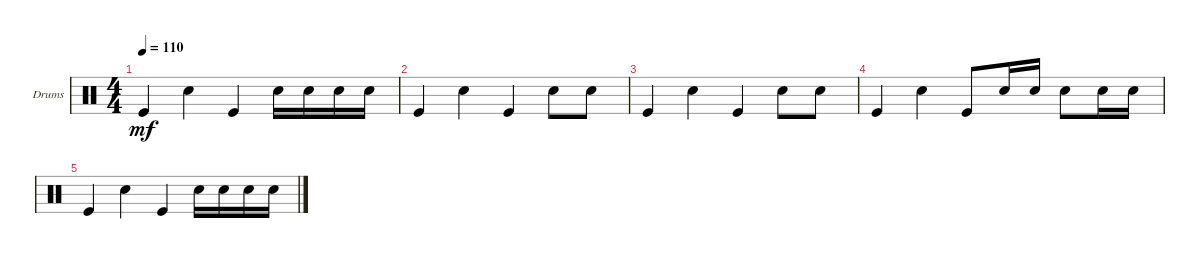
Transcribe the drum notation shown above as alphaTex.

\defaultSystemsLayout 4
\bracketExtendMode groupsimilarinstruments
\firstSystemTrackNameOrientation horizontal
\otherSystemsTrackNameOrientation horizontal
\track ("Drumkit" "Drums") {instrument percussion}
\staff {score}
\articulation defaults
\ts (4 4)
\tempo 110
\clef neutral
\ks c "Kick (hit)".4{dy mf} "Snare (hit) 2".4 "Kick (hit)".4 "Snare (hit) 2".16 "Snare (hit) 2".16 "Snare (hit) 2".16 "Snare (hit) 2".16
|
"Kick (hit)".4 "Snare (hit) 2".4 "Kick (hit)".4 "Snare (hit) 2".8 "Snare (hit) 2".8 |
"Kick (hit)".4 "Snare (hit) 2".4 "Kick (hit)".4 "Snare (hit) 2".8 "Snare (hit) 2".8 |
"Kick (hit)".4 "Snare (hit) 2".4 "Kick (hit)".8 "Snare (hit) 2".16 "Snare (hit) 2".16 "Snare (hit) 2".8 "Snare (hit) 2".16 "Snare (hit) 2".16 |
"Kick (hit)".4 "Snare (hit) 2".4 "Kick (hit)".4 "Snare (hit) 2".16 "Snare (hit) 2".16 "Snare (hit) 2".16 "Snare (hit) 2".16
